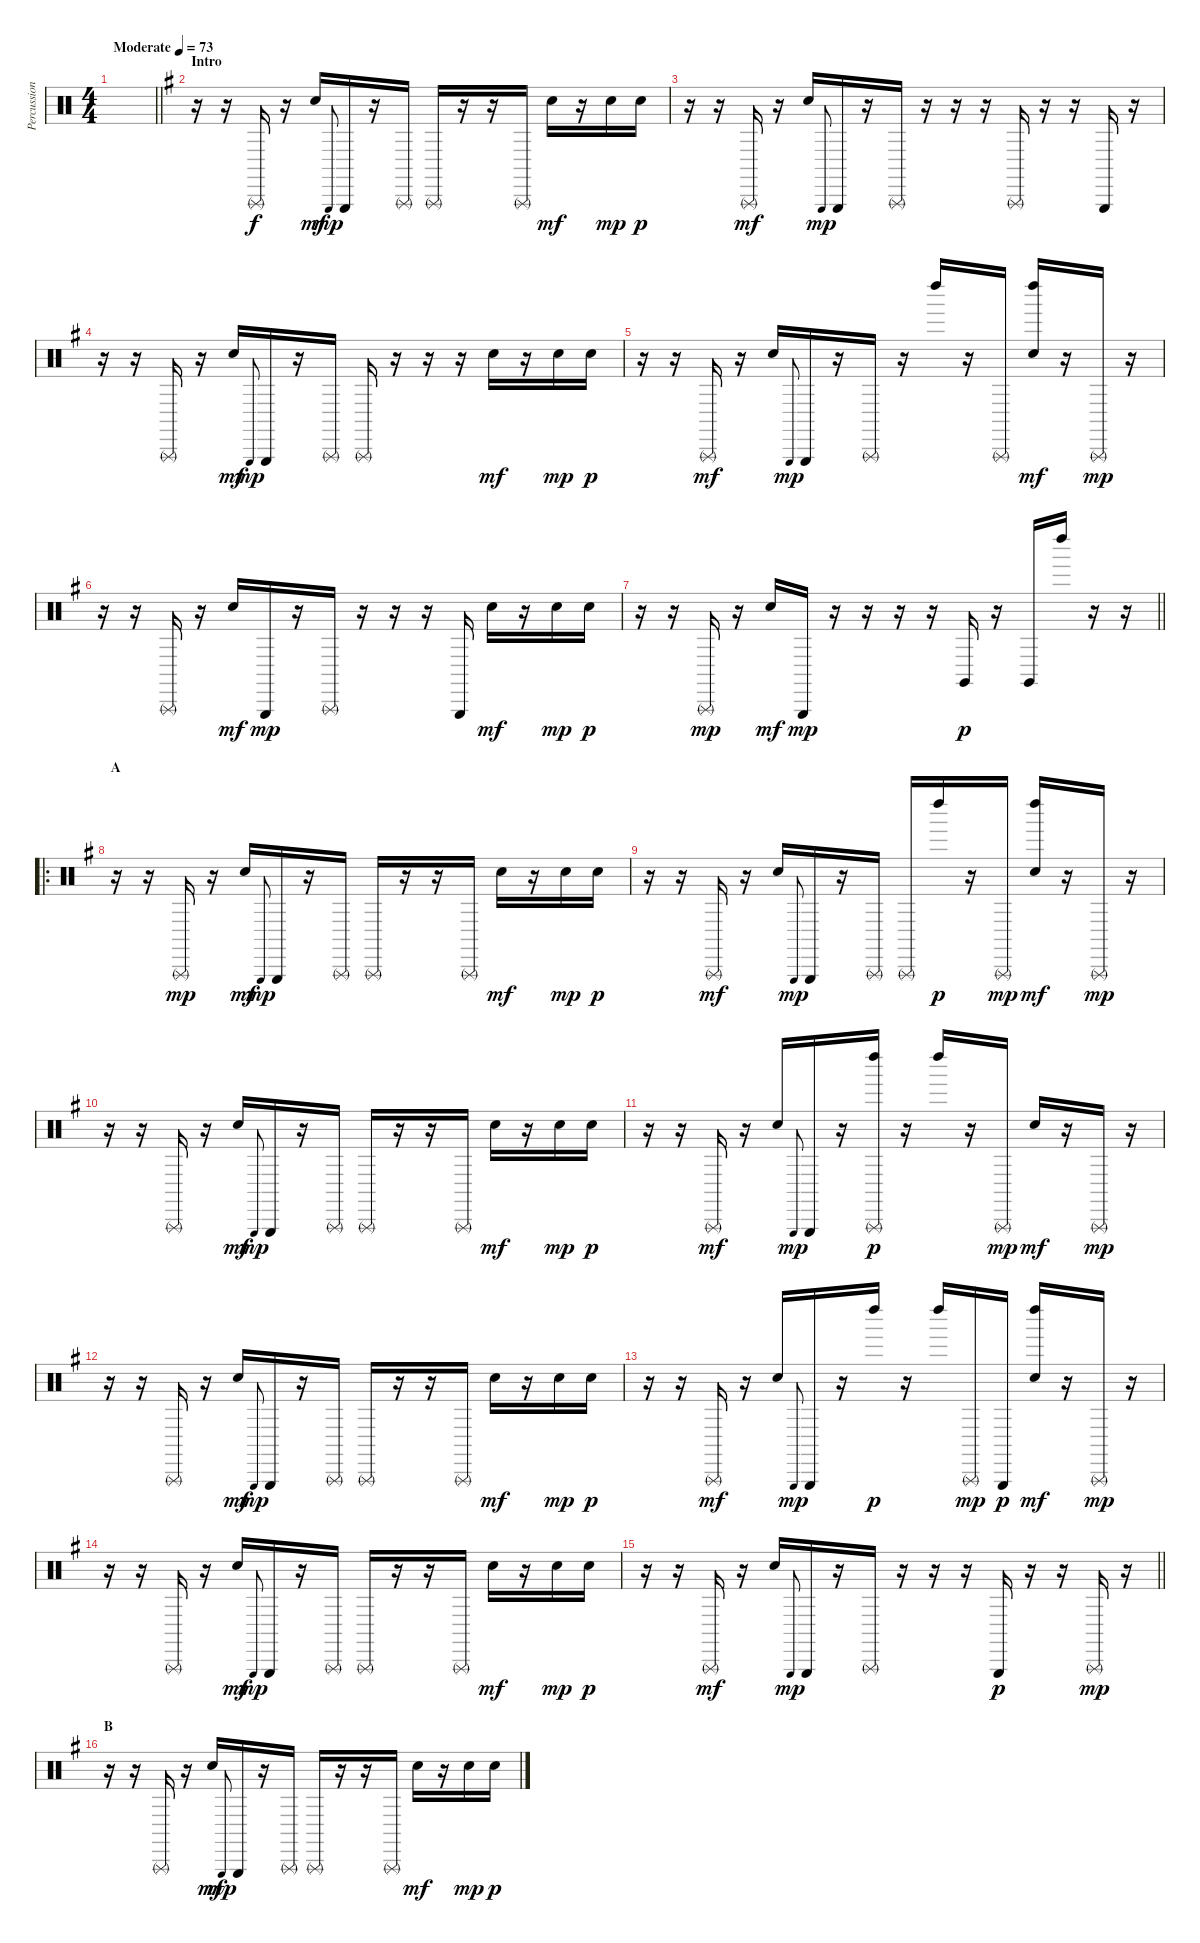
\track ("Percussion" "Percussion") {instrument percussion}
\staff {score}
\articulation defaults
\ts (4 4)
\tempo (73 "Moderate")
\clef neutral
\barLineRight lightlight
\ks c
|
\section ("" "Intro")
\ks g
r.16 r.16 "Triangle (rnute)".16 r.16 "Hand Clap (hit)".16{dy mf} "Triangle (hit)".8{gr onbeat dy mp} "Triangle (hit)".16 r.16 "Triangle (rnute)".16 "Triangle (rnute)".16 r.16 r.16 "Triangle (rnute)".16 "Hand Clap (hit)".16{dy mf} r.16 "Snare (hit) 2".16{dy mp} "Snare (hit) 2".16{dy p} |
r.16 r.16 "Triangle (rnute)".16{dy mf} r.16 "Hand Clap (hit)".16 "Triangle (hit)".8{gr onbeat dy mp} "Triangle (hit)".16 r.16 "Triangle (rnute)".16 r.16 r.16 r.16 "Triangle (rnute)".16 r.16 r.16 "Triangle (hit)".16 r.16 |
r.16 r.16 "Triangle (rnute)".16 r.16 "Hand Clap (hit)".16{dy mf} "Triangle (hit)".8{gr onbeat dy mp} "Triangle (hit)".16 r.16 "Triangle (rnute)".16 "Triangle (rnute)".16 r.16 r.16 r.16 "Hand Clap (hit)".16{dy mf} r.16 "Snare (hit) 2".16{dy mp} "Snare (hit) 2".16{dy p} |
r.16 r.16 "Triangle (rnute)".16{dy mf} r.16 "Hand Clap (hit)".16 "Triangle (hit)".8{gr onbeat dy mp} "Triangle (hit)".16 r.16 "Triangle (rnute)".16 r.16 "Left Maraca (hit)".16 r.16 "Triangle (rnute)".16 ("Left Maraca (hit)" "Hand Clap (hit)").16{dy mf} r.16 "Triangle (rnute)".16{dy mp} r.16 |
r.16 r.16 "Triangle (rnute)".16 r.16 "Hand Clap (hit)".16{dy mf} "Triangle (hit)".16{dy mp} r.16 "Triangle (rnute)".16 r.16 r.16 r.16 "Triangle (hit)".16 "Hand Clap (hit)".16{dy mf} r.16 "Snare (hit) 2".16{dy mp} "Snare (hit) 2".16{dy p} |
\barLineRight lightlight
r.16 r.16 "Triangle (rnute)".16{dy mp} r.16 "Hand Clap (hit)".16{dy mf} "Triangle (hit)".16{dy mp} r.16 r.16 r.16 r.16 "Claves (hit)".16{dy p} r.16 "Claves (hit)".16 "Left Maraca (hit)".16 r.16 r.16 |
\ro
\section ("" "A")
r.16 r.16 "Triangle (rnute)".16{dy mp} r.16 "Hand Clap (hit)".16{dy mf} "Triangle (hit)".8{gr onbeat dy mp} "Triangle (hit)".16 r.16 "Triangle (rnute)".16 "Triangle (rnute)".16 r.16 r.16 "Triangle (rnute)".16 "Hand Clap (hit)".16{dy mf} r.16 "Snare (hit) 2".16{dy mp} "Snare (hit) 2".16{dy p} |
r.16 r.16 "Triangle (rnute)".16{dy mf} r.16 "Hand Clap (hit)".16 "Triangle (hit)".8{gr onbeat dy mp} "Triangle (hit)".16 r.16 "Triangle (rnute)".16 "Triangle (rnute)".16 "Left Maraca (hit)".16{dy p} r.16 "Triangle (rnute)".16{dy mp} ("Left Maraca (hit)" "Hand Clap (hit)").16{dy mf} r.16 "Triangle (rnute)".16{dy mp} r.16 |
r.16 r.16 "Triangle (rnute)".16 r.16 "Hand Clap (hit)".16{dy mf} "Triangle (hit)".8{gr onbeat dy mp} "Triangle (hit)".16 r.16 "Triangle (rnute)".16 "Triangle (rnute)".16 r.16 r.16 "Triangle (rnute)".16 "Hand Clap (hit)".16{dy mf} r.16 "Snare (hit) 2".16{dy mp} "Snare (hit) 2".16{dy p} |
r.16 r.16 "Triangle (rnute)".16{dy mf} r.16 "Hand Clap (hit)".16 "Triangle (hit)".8{gr onbeat dy mp} "Triangle (hit)".16 r.16 ("Triangle (rnute)" "Left Maraca (hit)").16{dy p} r.16 "Left Maraca (hit)".16 r.16 "Triangle (rnute)".16{dy mp} "Hand Clap (hit)".16{dy mf} r.16 "Triangle (rnute)".16{dy mp} r.16 |
r.16 r.16 "Triangle (rnute)".16 r.16 "Hand Clap (hit)".16{dy mf} "Triangle (hit)".8{gr onbeat dy mp} "Triangle (hit)".16 r.16 "Triangle (rnute)".16 "Triangle (rnute)".16 r.16 r.16 "Triangle (rnute)".16 "Hand Clap (hit)".16{dy mf} r.16 "Snare (hit) 2".16{dy mp} "Snare (hit) 2".16{dy p} |
r.16 r.16 "Triangle (rnute)".16{dy mf} r.16 "Hand Clap (hit)".16 "Triangle (hit)".8{gr onbeat dy mp} "Triangle (hit)".16 r.16 "Left Maraca (hit)".16{dy p} r.16 "Left Maraca (hit)".16 "Triangle (rnute)".16{dy mp} "Triangle (hit)".16{dy p} ("Left Maraca (hit)" "Hand Clap (hit)").16{dy mf} r.16 "Triangle (rnute)".16{dy mp} r.16 |
r.16 r.16 "Triangle (rnute)".16 r.16 "Hand Clap (hit)".16{dy mf} "Triangle (hit)".8{gr onbeat dy mp} "Triangle (hit)".16 r.16 "Triangle (rnute)".16 "Triangle (rnute)".16 r.16 r.16 "Triangle (rnute)".16 "Hand Clap (hit)".16{dy mf} r.16 "Snare (hit) 2".16{dy mp} "Snare (hit) 2".16{dy p} |
\barLineRight lightlight
r.16 r.16 "Triangle (rnute)".16{dy mf} r.16 "Hand Clap (hit)".16 "Triangle (hit)".8{gr onbeat dy mp} "Triangle (hit)".16 r.16 "Triangle (rnute)".16 r.16 r.16 r.16 "Triangle (hit)".16{dy p} r.16 r.16 "Triangle (rnute)".16{dy mp} r.16 |
\section ("" "B")
r.16 r.16 "Triangle (rnute)".16 r.16 "Hand Clap (hit)".16{dy mf} "Triangle (hit)".8{gr onbeat dy mp} "Triangle (hit)".16 r.16 "Triangle (rnute)".16 "Triangle (rnute)".16 r.16 r.16 "Triangle (rnute)".16 "Hand Clap (hit)".16{dy mf} r.16 "Snare (hit) 2".16{dy mp} "Snare (hit) 2".16{dy p}
